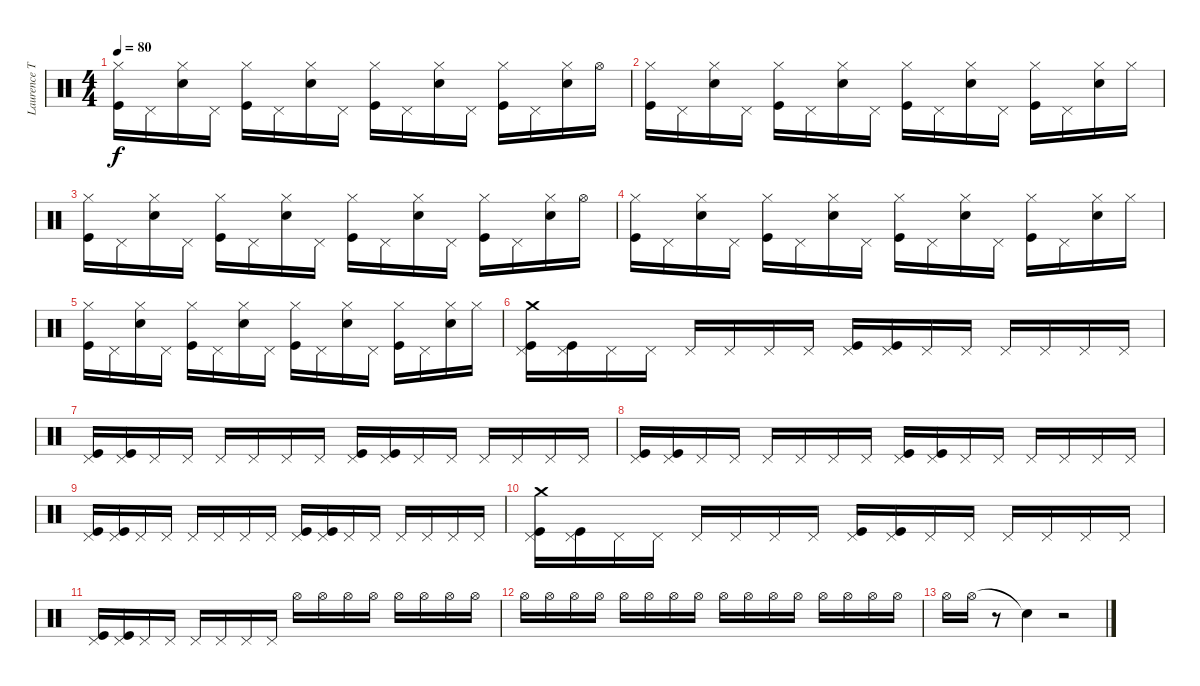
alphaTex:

\track ("Laurence Tolhurst (drums)" "Laurence T") {instrument percussion}
\staff {score}
\articulation defaults
\ts (4 4)
\tempo 80
\clef neutral
\ks c
("Kick (hit)" "Hi-Hat (closed)").16{dy f} "Pedal Hi-Hat (hit)".16 ("Snare (hit) 2" "Hi-Hat (closed)").16 "Pedal Hi-Hat (hit)".16 ("Kick (hit)" "Hi-Hat (closed)").16 "Pedal Hi-Hat (hit)".16 ("Snare (hit) 2" "Hi-Hat (closed)").16 "Pedal Hi-Hat (hit)".16 ("Kick (hit)" "Hi-Hat (closed)").16 "Pedal Hi-Hat (hit)".16 ("Snare (hit) 2" "Hi-Hat (closed)").16 "Pedal Hi-Hat (hit)".16 ("Kick (hit)" "Hi-Hat (closed)").16 "Pedal Hi-Hat (hit)".16 ("Snare (hit) 2" "Hi-Hat (closed)").16 "Hi-Hat (open)".16 |
("Kick (hit)" "Hi-Hat (closed)").16 "Pedal Hi-Hat (hit)".16 ("Snare (hit) 2" "Hi-Hat (closed)").16 "Pedal Hi-Hat (hit)".16 ("Kick (hit)" "Hi-Hat (closed)").16 "Pedal Hi-Hat (hit)".16 ("Snare (hit) 2" "Hi-Hat (closed)").16 "Pedal Hi-Hat (hit)".16 ("Kick (hit)" "Hi-Hat (closed)").16 "Pedal Hi-Hat (hit)".16 ("Snare (hit) 2" "Hi-Hat (closed)").16 "Pedal Hi-Hat (hit)".16 ("Kick (hit)" "Hi-Hat (closed)").16 "Pedal Hi-Hat (hit)".16 ("Snare (hit) 2" "Hi-Hat (closed)").16 "Hi-Hat (closed)".16 |
("Kick (hit)" "Hi-Hat (closed)").16 "Pedal Hi-Hat (hit)".16 ("Snare (hit) 2" "Hi-Hat (closed)").16 "Pedal Hi-Hat (hit)".16 ("Kick (hit)" "Hi-Hat (closed)").16 "Pedal Hi-Hat (hit)".16 ("Snare (hit) 2" "Hi-Hat (closed)").16 "Pedal Hi-Hat (hit)".16 ("Kick (hit)" "Hi-Hat (closed)").16 "Pedal Hi-Hat (hit)".16 ("Snare (hit) 2" "Hi-Hat (closed)").16 "Pedal Hi-Hat (hit)".16 ("Kick (hit)" "Hi-Hat (closed)").16 "Pedal Hi-Hat (hit)".16 ("Snare (hit) 2" "Hi-Hat (closed)").16 "Hi-Hat (open)".16 |
("Kick (hit)" "Hi-Hat (closed)").16 "Pedal Hi-Hat (hit)".16 ("Snare (hit) 2" "Hi-Hat (closed)").16 "Pedal Hi-Hat (hit)".16 ("Kick (hit)" "Hi-Hat (closed)").16 "Pedal Hi-Hat (hit)".16 ("Snare (hit) 2" "Hi-Hat (closed)").16 "Pedal Hi-Hat (hit)".16 ("Kick (hit)" "Hi-Hat (closed)").16 "Pedal Hi-Hat (hit)".16 ("Snare (hit) 2" "Hi-Hat (closed)").16 "Pedal Hi-Hat (hit)".16 ("Kick (hit)" "Hi-Hat (closed)").16 "Pedal Hi-Hat (hit)".16 ("Snare (hit) 2" "Hi-Hat (closed)").16 "Hi-Hat (closed)".16 |
("Kick (hit)" "Hi-Hat (closed)").16 "Pedal Hi-Hat (hit)".16 ("Snare (hit) 2" "Hi-Hat (closed)").16 "Pedal Hi-Hat (hit)".16 ("Kick (hit)" "Hi-Hat (closed)").16 "Pedal Hi-Hat (hit)".16 ("Snare (hit) 2" "Hi-Hat (closed)").16 "Pedal Hi-Hat (hit)".16 ("Kick (hit)" "Hi-Hat (closed)").16 "Pedal Hi-Hat (hit)".16 ("Snare (hit) 2" "Hi-Hat (closed)").16 "Pedal Hi-Hat (hit)".16 ("Kick (hit)" "Hi-Hat (closed)").16 "Pedal Hi-Hat (hit)".16 ("Snare (hit) 2" "Hi-Hat (closed)").16 "Hi-Hat (closed)".16 |
("Pedal Hi-Hat (hit)" "Kick (hit)" "Crash medium (hit)").16 ("Pedal Hi-Hat (hit)" "Kick (hit)").16 "Pedal Hi-Hat (hit)".16 "Pedal Hi-Hat (hit)".16 "Pedal Hi-Hat (hit)".16 "Pedal Hi-Hat (hit)".16 "Pedal Hi-Hat (hit)".16 "Pedal Hi-Hat (hit)".16 ("Pedal Hi-Hat (hit)" "Kick (hit)").16 ("Pedal Hi-Hat (hit)" "Kick (hit)").16 "Pedal Hi-Hat (hit)".16 "Pedal Hi-Hat (hit)".16 "Pedal Hi-Hat (hit)".16 "Pedal Hi-Hat (hit)".16 "Pedal Hi-Hat (hit)".16 "Pedal Hi-Hat (hit)".16 |
("Pedal Hi-Hat (hit)" "Kick (hit)").16 ("Pedal Hi-Hat (hit)" "Kick (hit)").16 "Pedal Hi-Hat (hit)".16 "Pedal Hi-Hat (hit)".16 "Pedal Hi-Hat (hit)".16 "Pedal Hi-Hat (hit)".16 "Pedal Hi-Hat (hit)".16 "Pedal Hi-Hat (hit)".16 ("Pedal Hi-Hat (hit)" "Kick (hit)").16 ("Pedal Hi-Hat (hit)" "Kick (hit)").16 "Pedal Hi-Hat (hit)".16 "Pedal Hi-Hat (hit)".16 "Pedal Hi-Hat (hit)".16 "Pedal Hi-Hat (hit)".16 "Pedal Hi-Hat (hit)".16 "Pedal Hi-Hat (hit)".16 |
("Pedal Hi-Hat (hit)" "Kick (hit)").16 ("Pedal Hi-Hat (hit)" "Kick (hit)").16 "Pedal Hi-Hat (hit)".16 "Pedal Hi-Hat (hit)".16 "Pedal Hi-Hat (hit)".16 "Pedal Hi-Hat (hit)".16 "Pedal Hi-Hat (hit)".16 "Pedal Hi-Hat (hit)".16 ("Pedal Hi-Hat (hit)" "Kick (hit)").16 ("Pedal Hi-Hat (hit)" "Kick (hit)").16 "Pedal Hi-Hat (hit)".16 "Pedal Hi-Hat (hit)".16 "Pedal Hi-Hat (hit)".16 "Pedal Hi-Hat (hit)".16 "Pedal Hi-Hat (hit)".16 "Pedal Hi-Hat (hit)".16 |
("Pedal Hi-Hat (hit)" "Kick (hit)").16 ("Pedal Hi-Hat (hit)" "Kick (hit)").16 "Pedal Hi-Hat (hit)".16 "Pedal Hi-Hat (hit)".16 "Pedal Hi-Hat (hit)".16 "Pedal Hi-Hat (hit)".16 "Pedal Hi-Hat (hit)".16 "Pedal Hi-Hat (hit)".16 ("Pedal Hi-Hat (hit)" "Kick (hit)").16 ("Pedal Hi-Hat (hit)" "Kick (hit)").16 "Pedal Hi-Hat (hit)".16 "Pedal Hi-Hat (hit)".16 "Pedal Hi-Hat (hit)".16 "Pedal Hi-Hat (hit)".16 "Pedal Hi-Hat (hit)".16 "Pedal Hi-Hat (hit)".16 |
("Pedal Hi-Hat (hit)" "Kick (hit)" "Crash medium (hit)").16 ("Pedal Hi-Hat (hit)" "Kick (hit)").16 "Pedal Hi-Hat (hit)".16 "Pedal Hi-Hat (hit)".16 "Pedal Hi-Hat (hit)".16 "Pedal Hi-Hat (hit)".16 "Pedal Hi-Hat (hit)".16 "Pedal Hi-Hat (hit)".16 ("Pedal Hi-Hat (hit)" "Kick (hit)").16 ("Pedal Hi-Hat (hit)" "Kick (hit)").16 "Pedal Hi-Hat (hit)".16 "Pedal Hi-Hat (hit)".16 "Pedal Hi-Hat (hit)".16 "Pedal Hi-Hat (hit)".16 "Pedal Hi-Hat (hit)".16 "Pedal Hi-Hat (hit)".16 |
("Pedal Hi-Hat (hit)" "Kick (hit)").16 ("Pedal Hi-Hat (hit)" "Kick (hit)").16 "Pedal Hi-Hat (hit)".16 "Pedal Hi-Hat (hit)".16 "Pedal Hi-Hat (hit)".16 "Pedal Hi-Hat (hit)".16 "Pedal Hi-Hat (hit)".16 "Pedal Hi-Hat (hit)".16 "Hi-Hat (open)".16 "Hi-Hat (open)".16 "Hi-Hat (open)".16 "Hi-Hat (open)".16 "Hi-Hat (open)".16 "Hi-Hat (open)".16 "Hi-Hat (open)".16 "Hi-Hat (open)".16 |
"Hi-Hat (open)".16 "Hi-Hat (open)".16 "Hi-Hat (open)".16 "Hi-Hat (open)".16 "Hi-Hat (open)".16 "Hi-Hat (open)".16 "Hi-Hat (open)".16 "Hi-Hat (open)".16 "Hi-Hat (open)".16{volume 0} "Hi-Hat (open)".16 "Hi-Hat (open)".16 "Hi-Hat (open)".16 "Hi-Hat (open)".16 "Hi-Hat (open)".16 "Hi-Hat (open)".16 "Hi-Hat (open)".16 |
"Hi-Hat (open)".16 "Hi-Hat (open)".16 r.8 "Snare (hit)"{t}.4 r.2
